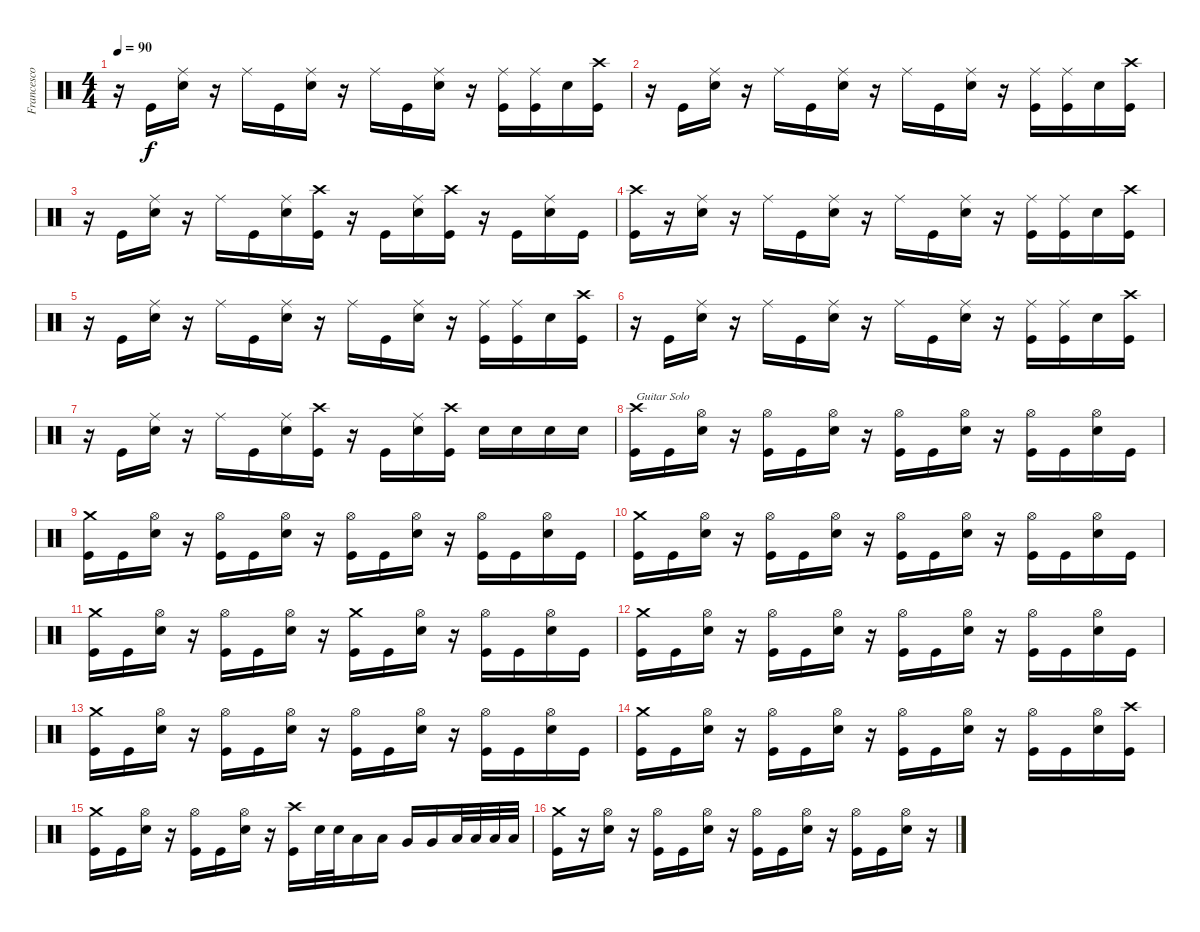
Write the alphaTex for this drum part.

\track ("Francesco Jovino" "Francesco ") {instrument percussion}
\staff {score}
\articulation defaults
\ts (4 4)
\tempo 90
\clef neutral
\ks c
r.16{dy f} "Kick (hit)".16 ("Snare (hit) 2" "Ride (middle)").16 r.16 "Ride (middle)".16 "Kick (hit)".16 ("Snare (hit) 2" "Ride (middle)").16 r.16 "Ride (middle)".16 "Kick (hit)".16 ("Snare (hit) 2" "Ride (middle)").16 r.16 ("Kick (hit)" "Ride (middle)").16 ("Kick (hit)" "Ride (middle)").16 "Snare (hit) 2".16 ("Kick (hit)" "Crash high (hit)").16 |
r.16 "Kick (hit)".16 ("Snare (hit) 2" "Ride (middle)").16 r.16 "Ride (middle)".16 "Kick (hit)".16 ("Snare (hit) 2" "Ride (middle)").16 r.16 "Ride (middle)".16 "Kick (hit)".16 ("Snare (hit) 2" "Ride (middle)").16 r.16 ("Kick (hit)" "Ride (middle)").16 ("Kick (hit)" "Ride (middle)").16 "Snare (hit) 2".16 ("Kick (hit)" "Crash high (hit)").16 |
r.16 "Kick (hit)".16 ("Snare (hit) 2" "Ride (middle)").16 r.16 "Ride (middle)".16 "Kick (hit)".16 ("Snare (hit) 2" "Ride (middle)").16 ("Kick (hit)" "Crash high (hit)").16 r.16 "Kick (hit)".16 ("Snare (hit) 2" "Ride (middle)").16 ("Kick (hit)" "Crash high (hit)").16 r.16 "Kick (hit)".16 ("Snare (hit) 2" "Ride (middle)").16 "Kick (hit)".16 |
("Crash high (hit)" "Kick (hit)").16 r.16 ("Snare (hit) 2" "Ride (middle)").16 r.16 "Ride (middle)".16 "Kick (hit)".16 ("Snare (hit) 2" "Ride (middle)").16 r.16 "Ride (middle)".16 "Kick (hit)".16 ("Snare (hit) 2" "Ride (middle)").16 r.16 ("Kick (hit)" "Ride (middle)").16 ("Kick (hit)" "Ride (middle)").16 "Snare (hit) 2".16 ("Kick (hit)" "Crash high (hit)").16 |
r.16 "Kick (hit)".16 ("Snare (hit) 2" "Ride (middle)").16 r.16 "Ride (middle)".16 "Kick (hit)".16 ("Snare (hit) 2" "Ride (middle)").16 r.16 "Ride (middle)".16 "Kick (hit)".16 ("Snare (hit) 2" "Ride (middle)").16 r.16 ("Kick (hit)" "Ride (middle)").16 ("Kick (hit)" "Ride (middle)").16 "Snare (hit) 2".16 ("Kick (hit)" "Crash high (hit)").16 |
r.16 "Kick (hit)".16 ("Snare (hit) 2" "Ride (middle)").16 r.16 "Ride (middle)".16 "Kick (hit)".16 ("Snare (hit) 2" "Ride (middle)").16 r.16 "Ride (middle)".16 "Kick (hit)".16 ("Snare (hit) 2" "Ride (middle)").16 r.16 ("Kick (hit)" "Ride (middle)").16 ("Kick (hit)" "Ride (middle)").16 "Snare (hit) 2".16 ("Kick (hit)" "Crash high (hit)").16 |
r.16 "Kick (hit)".16 ("Snare (hit) 2" "Ride (middle)").16 r.16 "Ride (middle)".16 "Kick (hit)".16 ("Snare (hit) 2" "Ride (middle)").16 ("Kick (hit)" "Crash high (hit)").16 r.16 "Kick (hit)".16 ("Snare (hit) 2" "Ride (middle)").16 ("Kick (hit)" "Crash high (hit)").16 "Snare (hit) 2".16 "Snare (hit) 2".16 "Snare (hit) 2".16 "Snare (hit) 2".16 |
("Kick (hit)" "Crash high (hit)").16{txt "Guitar Solo"} "Kick (hit)".16 ("Snare (hit) 2" "Hi-Hat (open)").16 r.16 ("Hi-Hat (open)" "Kick (hit)").16 "Kick (hit)".16 ("Snare (hit) 2" "Hi-Hat (open)").16 r.16 ("Kick (hit)" "Hi-Hat (open)").16 "Kick (hit)".16 ("Snare (hit) 2" "Hi-Hat (open)").16 r.16 ("Hi-Hat (open)" "Kick (hit)").16 "Kick (hit)".16 ("Snare (hit) 2" "Hi-Hat (open)").16 "Kick (hit)".16 |
("Kick (hit)" "Crash medium (hit)").16 "Kick (hit)".16 ("Snare (hit) 2" "Hi-Hat (open)").16 r.16 ("Hi-Hat (open)" "Kick (hit)").16 "Kick (hit)".16 ("Snare (hit) 2" "Hi-Hat (open)").16 r.16 ("Kick (hit)" "Hi-Hat (open)").16 "Kick (hit)".16 ("Snare (hit) 2" "Hi-Hat (open)").16 r.16 ("Hi-Hat (open)" "Kick (hit)").16 "Kick (hit)".16 ("Snare (hit) 2" "Hi-Hat (open)").16 "Kick (hit)".16 |
("Kick (hit)" "Crash medium (hit)").16 "Kick (hit)".16 ("Snare (hit) 2" "Hi-Hat (open)").16 r.16 ("Hi-Hat (open)" "Kick (hit)").16 "Kick (hit)".16 ("Snare (hit) 2" "Hi-Hat (open)").16 r.16 ("Kick (hit)" "Hi-Hat (open)").16 "Kick (hit)".16 ("Snare (hit) 2" "Hi-Hat (open)").16 r.16 ("Hi-Hat (open)" "Kick (hit)").16 "Kick (hit)".16 ("Snare (hit) 2" "Hi-Hat (open)").16 "Kick (hit)".16 |
("Kick (hit)" "Crash medium (hit)").16 "Kick (hit)".16 ("Snare (hit) 2" "Hi-Hat (open)").16 r.16 ("Hi-Hat (open)" "Kick (hit)").16 "Kick (hit)".16 ("Snare (hit) 2" "Hi-Hat (open)").16 r.16 ("Kick (hit)" "Crash medium (hit)").16 "Kick (hit)".16 ("Snare (hit) 2" "Hi-Hat (open)").16 r.16 ("Hi-Hat (open)" "Kick (hit)").16 "Kick (hit)".16 ("Snare (hit) 2" "Hi-Hat (open)").16 "Kick (hit)".16 |
("Kick (hit)" "Crash medium (hit)").16 "Kick (hit)".16 ("Snare (hit) 2" "Hi-Hat (open)").16 r.16 ("Hi-Hat (open)" "Kick (hit)").16 "Kick (hit)".16 ("Snare (hit) 2" "Hi-Hat (open)").16 r.16 ("Kick (hit)" "Hi-Hat (open)").16 "Kick (hit)".16 ("Snare (hit) 2" "Hi-Hat (open)").16 r.16 ("Hi-Hat (open)" "Kick (hit)").16 "Kick (hit)".16 ("Snare (hit) 2" "Hi-Hat (open)").16 "Kick (hit)".16 |
("Kick (hit)" "Crash medium (hit)").16 "Kick (hit)".16 ("Snare (hit) 2" "Hi-Hat (open)").16 r.16 ("Hi-Hat (open)" "Kick (hit)").16 "Kick (hit)".16 ("Snare (hit) 2" "Hi-Hat (open)").16 r.16 ("Kick (hit)" "Hi-Hat (open)").16 "Kick (hit)".16 ("Snare (hit) 2" "Hi-Hat (open)").16 r.16 ("Hi-Hat (open)" "Kick (hit)").16 "Kick (hit)".16 ("Snare (hit) 2" "Hi-Hat (open)").16 "Kick (hit)".16 |
("Kick (hit)" "Crash medium (hit)").16 "Kick (hit)".16 ("Snare (hit) 2" "Hi-Hat (open)").16 r.16 ("Hi-Hat (open)" "Kick (hit)").16 "Kick (hit)".16 ("Snare (hit) 2" "Hi-Hat (open)").16 r.16 ("Kick (hit)" "Hi-Hat (open)").16 "Kick (hit)".16 ("Snare (hit) 2" "Hi-Hat (open)").16 r.16 ("Hi-Hat (open)" "Kick (hit)").16 "Kick (hit)".16 ("Snare (hit) 2" "Hi-Hat (open)").16 ("Kick (hit)" "Crash high (hit)").16 |
("Kick (hit)" "Crash medium (hit)").16 "Kick (hit)".16 ("Snare (hit) 2" "Hi-Hat (open)").16 r.16 ("Hi-Hat (open)" "Kick (hit)").16 "Kick (hit)".16 ("Snare (hit) 2" "Hi-Hat (open)").16 r.16 ("Kick (hit)" "Crash high (hit)").16 "Snare (hit) 2".32 "Snare (hit) 2".32 "Low Tom (hit)".16 "Low Tom (hit)".16 "Very Low Tom (hit)".16 "Very Low Tom (hit)".16 "Low Floor Tom (hit)".32 "Low Floor Tom (hit)".32 "Low Floor Tom (hit)".32 "Low Floor Tom (hit)".32 |
("Kick (hit)" "Crash medium (hit)").16 r.16 ("Snare (hit) 2" "Hi-Hat (open)").16 r.16 ("Hi-Hat (open)" "Kick (hit)").16 "Kick (hit)".16 ("Snare (hit) 2" "Hi-Hat (open)").16 r.16 ("Kick (hit)" "Hi-Hat (open)").16 "Kick (hit)".16 ("Snare (hit) 2" "Hi-Hat (open)").16 r.16 ("Hi-Hat (open)" "Kick (hit)").16 "Kick (hit)".16 ("Snare (hit) 2" "Hi-Hat (open)").16 r.16
